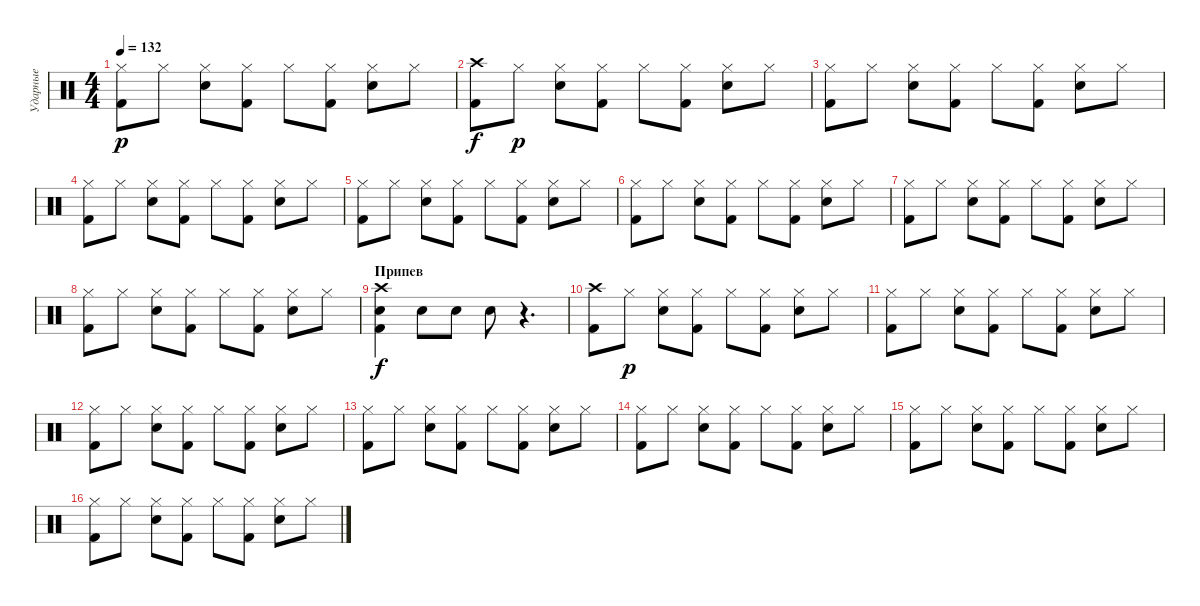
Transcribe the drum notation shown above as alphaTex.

\track ("Ударные" "Ударные") {instrument percussion}
\staff {score}
\articulation defaults
\ts (4 4)
\tempo 132
\clef neutral
\ks c
("Hi-Hat (closed)" "Kick (hit) 2").8{dy p} "Hi-Hat (closed)".8 ("Hi-Hat (closed)" "Snare (hit) 2").8 ("Hi-Hat (closed)" "Kick (hit) 2").8 "Hi-Hat (closed)".8 ("Hi-Hat (closed)" "Kick (hit) 2").8 ("Hi-Hat (closed)" "Snare (hit) 2").8 "Hi-Hat (closed)".8 |
("Crash high (hit)" "Kick (hit) 2").8{dy f} "Hi-Hat (closed)".8{dy p} ("Hi-Hat (closed)" "Snare (hit) 2").8 ("Hi-Hat (closed)" "Kick (hit) 2").8 "Hi-Hat (closed)".8 ("Hi-Hat (closed)" "Kick (hit) 2").8 ("Hi-Hat (closed)" "Snare (hit) 2").8 "Hi-Hat (closed)".8 |
("Hi-Hat (closed)" "Kick (hit) 2").8 "Hi-Hat (closed)".8 ("Hi-Hat (closed)" "Snare (hit) 2").8 ("Hi-Hat (closed)" "Kick (hit) 2").8 "Hi-Hat (closed)".8 ("Hi-Hat (closed)" "Kick (hit) 2").8 ("Hi-Hat (closed)" "Snare (hit) 2").8 "Hi-Hat (closed)".8 |
("Hi-Hat (closed)" "Kick (hit) 2").8 "Hi-Hat (closed)".8 ("Hi-Hat (closed)" "Snare (hit) 2").8 ("Hi-Hat (closed)" "Kick (hit) 2").8 "Hi-Hat (closed)".8 ("Hi-Hat (closed)" "Kick (hit) 2").8 ("Hi-Hat (closed)" "Snare (hit) 2").8 "Hi-Hat (closed)".8 |
("Hi-Hat (closed)" "Kick (hit) 2").8 "Hi-Hat (closed)".8 ("Hi-Hat (closed)" "Snare (hit) 2").8 ("Hi-Hat (closed)" "Kick (hit) 2").8 "Hi-Hat (closed)".8 ("Hi-Hat (closed)" "Kick (hit) 2").8 ("Hi-Hat (closed)" "Snare (hit) 2").8 "Hi-Hat (closed)".8 |
("Hi-Hat (closed)" "Kick (hit) 2").8 "Hi-Hat (closed)".8 ("Hi-Hat (closed)" "Snare (hit) 2").8 ("Hi-Hat (closed)" "Kick (hit) 2").8 "Hi-Hat (closed)".8 ("Hi-Hat (closed)" "Kick (hit) 2").8 ("Hi-Hat (closed)" "Snare (hit) 2").8 "Hi-Hat (closed)".8 |
("Hi-Hat (closed)" "Kick (hit) 2").8 "Hi-Hat (closed)".8 ("Hi-Hat (closed)" "Snare (hit) 2").8 ("Hi-Hat (closed)" "Kick (hit) 2").8 "Hi-Hat (closed)".8 ("Hi-Hat (closed)" "Kick (hit) 2").8 ("Hi-Hat (closed)" "Snare (hit) 2").8 "Hi-Hat (closed)".8 |
("Hi-Hat (closed)" "Kick (hit) 2").8 "Hi-Hat (closed)".8 ("Hi-Hat (closed)" "Snare (hit) 2").8 ("Hi-Hat (closed)" "Kick (hit) 2").8 "Hi-Hat (closed)".8 ("Hi-Hat (closed)" "Kick (hit) 2").8 ("Hi-Hat (closed)" "Snare (hit) 2").8 "Hi-Hat (closed)".8 |
\section ("" "Припев")
("Crash high (hit)" "Snare (hit) 2" "Kick (hit) 2").4{dy f} "Snare (hit) 2".8 "Snare (hit) 2".8 "Snare (hit) 2".8 r.4{d} |
("Crash high (hit)" "Kick (hit) 2").8 "Hi-Hat (closed)".8{dy p} ("Hi-Hat (closed)" "Snare (hit) 2").8 ("Hi-Hat (closed)" "Kick (hit) 2").8 "Hi-Hat (closed)".8 ("Hi-Hat (closed)" "Kick (hit) 2").8 ("Hi-Hat (closed)" "Snare (hit) 2").8 "Hi-Hat (closed)".8 |
("Hi-Hat (closed)" "Kick (hit) 2").8 "Hi-Hat (closed)".8 ("Hi-Hat (closed)" "Snare (hit) 2").8 ("Hi-Hat (closed)" "Kick (hit) 2").8 "Hi-Hat (closed)".8 ("Hi-Hat (closed)" "Kick (hit) 2").8 ("Hi-Hat (closed)" "Snare (hit) 2").8 "Hi-Hat (closed)".8 |
("Hi-Hat (closed)" "Kick (hit) 2").8 "Hi-Hat (closed)".8 ("Hi-Hat (closed)" "Snare (hit) 2").8 ("Hi-Hat (closed)" "Kick (hit) 2").8 "Hi-Hat (closed)".8 ("Hi-Hat (closed)" "Kick (hit) 2").8 ("Hi-Hat (closed)" "Snare (hit) 2").8 "Hi-Hat (closed)".8 |
("Hi-Hat (closed)" "Kick (hit) 2").8 "Hi-Hat (closed)".8 ("Hi-Hat (closed)" "Snare (hit) 2").8 ("Hi-Hat (closed)" "Kick (hit) 2").8 "Hi-Hat (closed)".8 ("Hi-Hat (closed)" "Kick (hit) 2").8 ("Hi-Hat (closed)" "Snare (hit) 2").8 "Hi-Hat (closed)".8 |
("Hi-Hat (closed)" "Kick (hit) 2").8 "Hi-Hat (closed)".8 ("Hi-Hat (closed)" "Snare (hit) 2").8 ("Hi-Hat (closed)" "Kick (hit) 2").8 "Hi-Hat (closed)".8 ("Hi-Hat (closed)" "Kick (hit) 2").8 ("Hi-Hat (closed)" "Snare (hit) 2").8 "Hi-Hat (closed)".8 |
("Hi-Hat (closed)" "Kick (hit) 2").8 "Hi-Hat (closed)".8 ("Hi-Hat (closed)" "Snare (hit) 2").8 ("Hi-Hat (closed)" "Kick (hit) 2").8 "Hi-Hat (closed)".8 ("Hi-Hat (closed)" "Kick (hit) 2").8 ("Hi-Hat (closed)" "Snare (hit) 2").8 "Hi-Hat (closed)".8 |
("Hi-Hat (closed)" "Kick (hit) 2").8 "Hi-Hat (closed)".8 ("Hi-Hat (closed)" "Snare (hit) 2").8 ("Hi-Hat (closed)" "Kick (hit) 2").8 "Hi-Hat (closed)".8 ("Hi-Hat (closed)" "Kick (hit) 2").8 ("Hi-Hat (closed)" "Snare (hit) 2").8 "Hi-Hat (closed)".8
